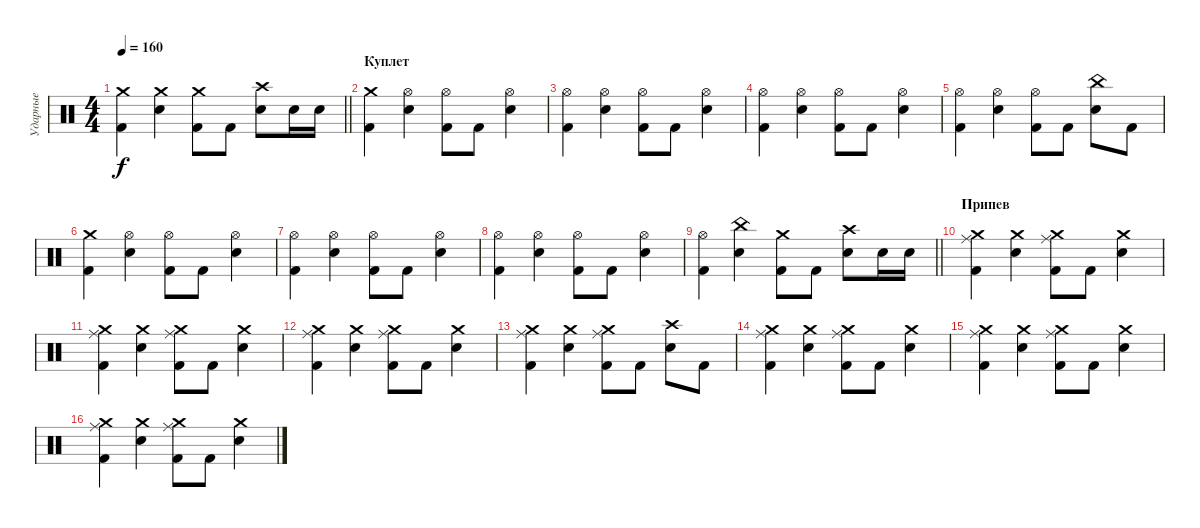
\track ("Ударные" "Ударные") {instrument percussion}
\staff {score}
\articulation defaults
\ts (4 4)
\tempo 160
\clef neutral
\barLineRight lightlight
\ks c
("Kick (hit) 2" "Crash medium (hit)").4{dy f} ("Electric Snare (hit)" "Crash medium (hit)").4 ("Kick (hit) 2" "Crash medium (hit)").8 "Kick (hit) 2".8 ("Electric Snare (hit)" "Crash high (hit)").8 "Electric Snare (hit)".16 "Electric Snare (hit)".16 |
\section ("" "Куплет")
("Kick (hit) 2" "Crash medium (hit)").4 ("Electric Snare (hit)" "Hi-Hat (open)").4 ("Kick (hit) 2" "Hi-Hat (open)").8 "Kick (hit) 2".8 ("Electric Snare (hit)" "Hi-Hat (open)").4 |
("Kick (hit) 2" "Hi-Hat (open)").4 ("Electric Snare (hit)" "Hi-Hat (open)").4 ("Kick (hit) 2" "Hi-Hat (open)").8 "Kick (hit) 2".8 ("Electric Snare (hit)" "Hi-Hat (open)").4 |
("Kick (hit) 2" "Hi-Hat (open)").4 ("Electric Snare (hit)" "Hi-Hat (open)").4 ("Kick (hit) 2" "Hi-Hat (open)").8 "Kick (hit) 2".8 ("Electric Snare (hit)" "Hi-Hat (open)").4 |
("Kick (hit) 2" "Hi-Hat (open)").4 ("Electric Snare (hit)" "Hi-Hat (open)").4 ("Kick (hit) 2" "Hi-Hat (open)").8 "Kick (hit) 2".8 ("Electric Snare (hit)" "China (hit)").8 "Kick (hit) 2".8 |
("Kick (hit) 2" "Crash medium (hit)").4 ("Electric Snare (hit)" "Hi-Hat (open)").4 ("Kick (hit) 2" "Hi-Hat (open)").8 "Kick (hit) 2".8 ("Electric Snare (hit)" "Hi-Hat (open)").4 |
("Kick (hit) 2" "Hi-Hat (open)").4 ("Electric Snare (hit)" "Hi-Hat (open)").4 ("Kick (hit) 2" "Hi-Hat (open)").8 "Kick (hit) 2".8 ("Electric Snare (hit)" "Hi-Hat (open)").4 |
("Kick (hit) 2" "Hi-Hat (open)").4 ("Electric Snare (hit)" "Hi-Hat (open)").4 ("Kick (hit) 2" "Hi-Hat (open)").8 "Kick (hit) 2".8 ("Electric Snare (hit)" "Hi-Hat (open)").4 |
\barLineRight lightlight
("Kick (hit) 2" "Hi-Hat (open)").4 ("Electric Snare (hit)" "China (hit)").4 ("Kick (hit) 2" "Crash medium (hit)").8 "Kick (hit) 2".8 ("Electric Snare (hit)" "Crash high (hit)").8 "Electric Snare (hit)".16 "Electric Snare (hit)".16 |
\section ("" "Припев")
("Kick (hit) 2" "Crash medium (hit)" "Ride (middle)").4 ("Electric Snare (hit)" "Crash medium (hit)").4 ("Kick (hit) 2" "Crash medium (hit)" "Ride (middle)").8 "Kick (hit) 2".8 ("Electric Snare (hit)" "Crash medium (hit)").4 |
("Kick (hit) 2" "Crash medium (hit)" "Ride (middle)").4 ("Electric Snare (hit)" "Crash medium (hit)").4 ("Kick (hit) 2" "Crash medium (hit)" "Ride (middle)").8 "Kick (hit) 2".8 ("Electric Snare (hit)" "Crash medium (hit)").4 |
("Kick (hit) 2" "Crash medium (hit)" "Ride (middle)").4 ("Electric Snare (hit)" "Crash medium (hit)").4 ("Kick (hit) 2" "Crash medium (hit)" "Ride (middle)").8 "Kick (hit) 2".8 ("Electric Snare (hit)" "Crash medium (hit)").4 |
("Kick (hit) 2" "Crash medium (hit)" "Ride (middle)").4 ("Electric Snare (hit)" "Crash medium (hit)").4 ("Kick (hit) 2" "Crash medium (hit)" "Ride (middle)").8 "Kick (hit) 2".8 ("Electric Snare (hit)" "Crash high (hit)").8 "Kick (hit) 2".8 |
("Kick (hit) 2" "Crash medium (hit)" "Ride (middle)").4 ("Electric Snare (hit)" "Crash medium (hit)").4 ("Kick (hit) 2" "Crash medium (hit)" "Ride (middle)").8 "Kick (hit) 2".8 ("Electric Snare (hit)" "Crash medium (hit)").4 |
("Kick (hit) 2" "Crash medium (hit)" "Ride (middle)").4 ("Electric Snare (hit)" "Crash medium (hit)").4 ("Kick (hit) 2" "Crash medium (hit)" "Ride (middle)").8 "Kick (hit) 2".8 ("Electric Snare (hit)" "Crash medium (hit)").4 |
("Kick (hit) 2" "Crash medium (hit)" "Ride (middle)").4 ("Electric Snare (hit)" "Crash medium (hit)").4 ("Kick (hit) 2" "Crash medium (hit)" "Ride (middle)").8 "Kick (hit) 2".8 ("Electric Snare (hit)" "Crash medium (hit)").4
